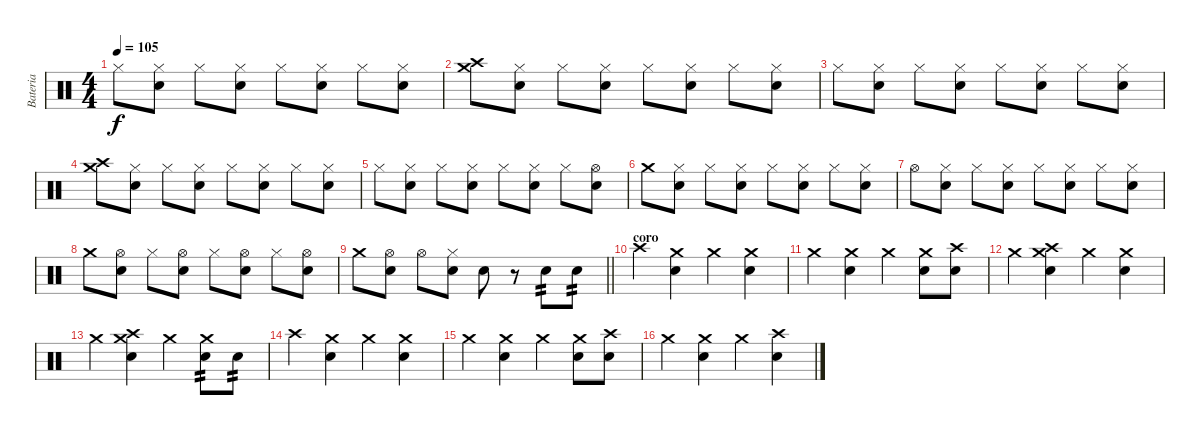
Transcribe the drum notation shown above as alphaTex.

\track ("Bateria" "Bateria") {instrument percussion}
\staff {score}
\articulation defaults
\ts (4 4)
\tempo 105
\clef neutral
\ks c "Hi-Hat (closed)".8{dy f}
("Hi-Hat (closed)" "Snare (hit) 2").8 "Hi-Hat (closed)".8 ("Hi-Hat (closed)" "Snare (hit) 2").8 "Hi-Hat (closed)".8 ("Hi-Hat (closed)" "Snare (hit) 2").8 "Hi-Hat (closed)".8 ("Hi-Hat (closed)" "Snare (hit) 2").8 |
("Crash high (hit)" "Crash medium (hit)").8 ("Hi-Hat (closed)" "Snare (hit) 2").8 "Hi-Hat (closed)".8 ("Hi-Hat (closed)" "Snare (hit) 2").8 "Hi-Hat (closed)".8 ("Hi-Hat (closed)" "Snare (hit) 2").8 "Hi-Hat (closed)".8 ("Hi-Hat (closed)" "Snare (hit) 2").8 |
"Hi-Hat (closed)".8 ("Hi-Hat (closed)" "Snare (hit) 2").8 "Hi-Hat (closed)".8 ("Hi-Hat (closed)" "Snare (hit) 2").8 "Hi-Hat (closed)".8 ("Hi-Hat (closed)" "Snare (hit) 2").8 "Hi-Hat (closed)".8 ("Hi-Hat (closed)" "Snare (hit) 2").8 |
("Crash high (hit)" "Crash medium (hit)").8 ("Hi-Hat (closed)" "Snare (hit) 2").8 "Hi-Hat (closed)".8 ("Hi-Hat (closed)" "Snare (hit) 2").8 "Hi-Hat (closed)".8 ("Hi-Hat (closed)" "Snare (hit) 2").8 "Hi-Hat (closed)".8 ("Hi-Hat (closed)" "Snare (hit) 2").8 |
"Hi-Hat (closed)".8 ("Hi-Hat (closed)" "Snare (hit) 2").8 "Hi-Hat (closed)".8 ("Hi-Hat (closed)" "Snare (hit) 2").8 "Hi-Hat (closed)".8 ("Hi-Hat (closed)" "Snare (hit) 2").8 "Hi-Hat (closed)".8 ("Hi-Hat (open)" "Snare (hit) 2").8 |
"Crash medium (hit)".8 ("Hi-Hat (closed)" "Snare (hit) 2").8 "Hi-Hat (closed)".8 ("Hi-Hat (closed)" "Snare (hit) 2").8 "Hi-Hat (closed)".8 ("Hi-Hat (closed)" "Snare (hit) 2").8 "Hi-Hat (closed)".8 ("Hi-Hat (closed)" "Snare (hit) 2").8 |
"Hi-Hat (open)".8 ("Hi-Hat (closed)" "Snare (hit) 2").8 "Hi-Hat (closed)".8 ("Hi-Hat (closed)" "Snare (hit) 2").8 "Hi-Hat (closed)".8 ("Hi-Hat (closed)" "Snare (hit) 2").8 "Hi-Hat (closed)".8 ("Hi-Hat (closed)" "Snare (hit) 2").8 |
"Crash medium (hit)".8 ("Hi-Hat (open)" "Snare (hit) 2").8 "Hi-Hat (closed)".8 ("Hi-Hat (open)" "Snare (hit) 2").8 "Hi-Hat (closed)".8 ("Hi-Hat (open)" "Snare (hit) 2").8 "Hi-Hat (closed)".8 ("Hi-Hat (open)" "Snare (hit) 2").8 |
\barLineRight lightlight "Crash medium (hit)".8
("Hi-Hat (open)" "Snare (hit) 2").8 "Hi-Hat (open)".8 ("Hi-Hat (closed)" "Snare (hit) 2").8 "Snare (hit) 2".8 r.8 "Snare (hit) 2".8{tp 2} "Snare (hit) 2".8{tp 2} |
\section ("" "coro")
"Crash high (hit)".4 ("Crash medium (hit)" "Snare (hit) 2").4 "Crash medium (hit)".4 ("Crash medium (hit)" "Snare (hit) 2").4 |
"Crash medium (hit)".4 ("Crash medium (hit)" "Snare (hit) 2").4 "Crash medium (hit)".4 ("Crash medium (hit)" "Snare (hit) 2").8 ("Crash high (hit)" "Electric Snare (hit)").8 |
"Crash medium (hit)".4 ("Crash high (hit)" "Crash medium (hit)" "Snare (hit) 2").4 "Crash medium (hit)".4 ("Crash medium (hit)" "Snare (hit) 2").4 |
"Crash medium (hit)".4 ("Crash high (hit)" "Crash medium (hit)" "Snare (hit) 2").4 "Crash medium (hit)".4 ("Crash medium (hit)" "Electric Snare (hit)").8{tp 2} "Snare (hit) 2".8{tp 2} |
"Crash high (hit)".4 ("Crash medium (hit)" "Snare (hit) 2").4 "Crash medium (hit)".4 ("Crash medium (hit)" "Snare (hit) 2").4 |
"Crash medium (hit)".4 ("Crash medium (hit)" "Snare (hit) 2").4 "Crash medium (hit)".4 ("Crash medium (hit)" "Snare (hit) 2").8 ("Crash high (hit)" "Electric Snare (hit)").8 |
"Crash medium (hit)".4 ("Crash medium (hit)" "Snare (hit) 2").4 "Crash medium (hit)".4 ("Crash high (hit)" "Snare (hit) 2").4
